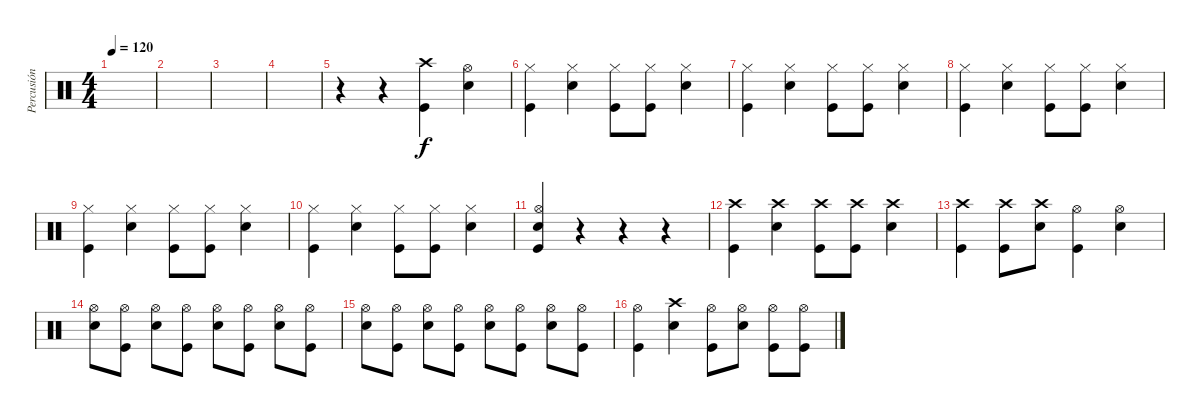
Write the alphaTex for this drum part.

\track ("Percusión" "Percusión") {instrument percussion}
\staff {score}
\articulation defaults
\ts (4 4)
\tempo 120
\clef neutral
\ks c
|
|
|
|
r.4 r.4 ("Crash high (hit)" "Kick (hit)").4 ("Hi-Hat (open)" "Snare (hit) 2").4 |
("Hi-Hat (closed)" "Kick (hit)").4 ("Hi-Hat (closed)" "Snare (hit) 2").4 ("Hi-Hat (closed)" "Kick (hit)").8 ("Hi-Hat (closed)" "Kick (hit)").8 ("Hi-Hat (closed)" "Snare (hit) 2").4 |
("Hi-Hat (closed)" "Kick (hit)").4 ("Hi-Hat (closed)" "Snare (hit) 2").4 ("Hi-Hat (closed)" "Kick (hit)").8 ("Hi-Hat (closed)" "Kick (hit)").8 ("Hi-Hat (closed)" "Snare (hit) 2").4 |
("Hi-Hat (closed)" "Kick (hit)").4 ("Hi-Hat (closed)" "Snare (hit) 2").4 ("Hi-Hat (closed)" "Kick (hit)").8 ("Hi-Hat (closed)" "Kick (hit)").8 ("Hi-Hat (closed)" "Snare (hit) 2").4 |
("Hi-Hat (closed)" "Kick (hit)").4 ("Hi-Hat (closed)" "Snare (hit) 2").4 ("Hi-Hat (closed)" "Kick (hit)").8 ("Hi-Hat (closed)" "Kick (hit)").8 ("Hi-Hat (closed)" "Snare (hit) 2").4 |
("Hi-Hat (closed)" "Kick (hit)").4 ("Hi-Hat (closed)" "Snare (hit) 2").4 ("Hi-Hat (closed)" "Kick (hit)").8 ("Hi-Hat (closed)" "Kick (hit)").8 ("Hi-Hat (closed)" "Snare (hit) 2").4 |
("Hi-Hat (open)" "Snare (hit) 2" "Kick (hit)").4 r.4 r.4 r.4 |
("Crash high (hit)" "Kick (hit)").4 ("Crash high (hit)" "Snare (hit) 2").4 ("Crash high (hit)" "Kick (hit)").8 ("Crash high (hit)" "Kick (hit)").8 ("Crash high (hit)" "Snare (hit) 2").4 |
("Crash high (hit)" "Kick (hit)").4 ("Crash high (hit)" "Kick (hit)").8 ("Crash high (hit)" "Snare (hit) 2").8 ("Hi-Hat (open)" "Kick (hit)").4 ("Hi-Hat (open)" "Snare (hit) 2").4 |
("Hi-Hat (open)" "Snare (hit) 2").8 ("Hi-Hat (open)" "Kick (hit)").8 ("Hi-Hat (open)" "Snare (hit) 2").8 ("Hi-Hat (open)" "Kick (hit)").8 ("Hi-Hat (open)" "Snare (hit) 2").8 ("Hi-Hat (open)" "Kick (hit)").8 ("Hi-Hat (open)" "Snare (hit) 2").8 ("Hi-Hat (open)" "Kick (hit)").8 |
("Hi-Hat (open)" "Snare (hit) 2").8 ("Hi-Hat (open)" "Kick (hit)").8 ("Hi-Hat (open)" "Snare (hit) 2").8 ("Hi-Hat (open)" "Kick (hit)").8 ("Hi-Hat (open)" "Snare (hit) 2").8 ("Hi-Hat (open)" "Kick (hit)").8 ("Hi-Hat (open)" "Snare (hit) 2").8 ("Hi-Hat (open)" "Kick (hit)").8 |
("Hi-Hat (open)" "Kick (hit)").4 ("Crash high (hit)" "Snare (hit) 2").4 ("Hi-Hat (open)" "Kick (hit)").8 ("Hi-Hat (open)" "Snare (hit) 2").8 ("Hi-Hat (open)" "Kick (hit)").8 ("Hi-Hat (open)" "Kick (hit)").8
